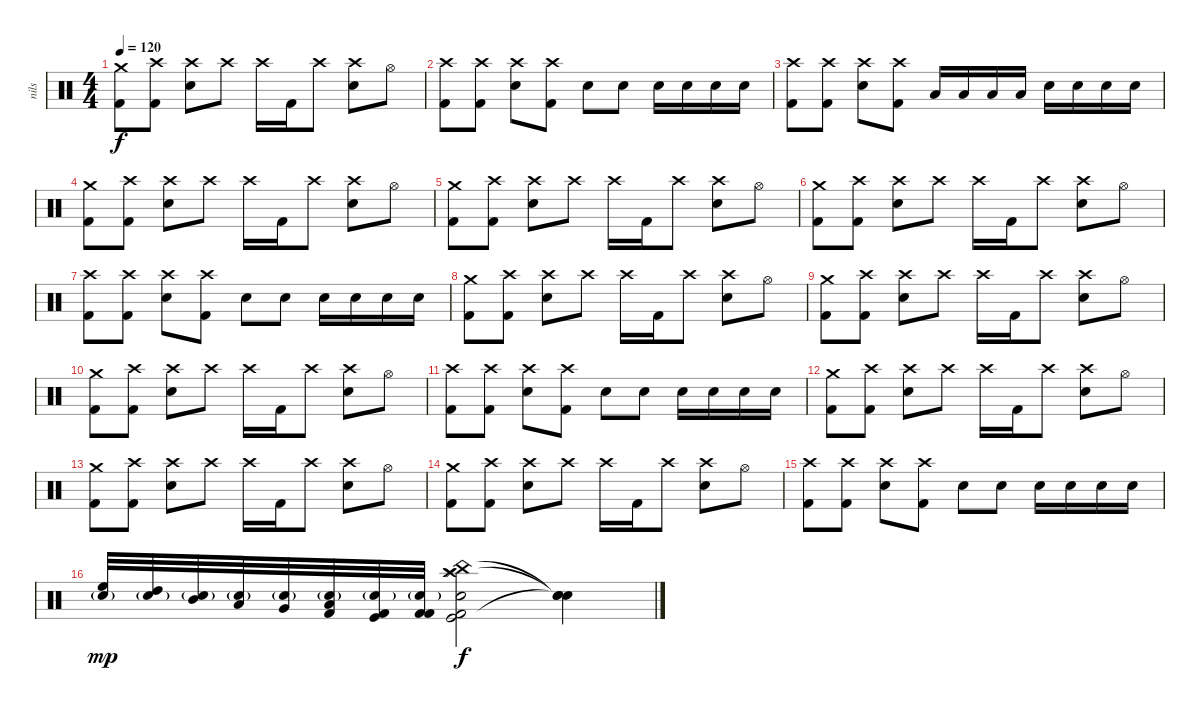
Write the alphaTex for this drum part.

\track ("nils" "nils") {instrument percussion}
\staff {score}
\articulation defaults
\ts (4 4)
\tempo 120
\clef neutral
\ks c
("Crash medium (hit)" "Kick (hit) 2").8{dy f} ("Crash high (hit)" "Kick (hit) 2").8 ("Crash high (hit)" "Snare (hit) 2").8 "Crash high (hit)".8 "Crash high (hit)".16 "Kick (hit) 2".16 "Crash high (hit)".8 ("Crash high (hit)" "Snare (hit) 2").8 "Hi-Hat (open)".8 |
("Crash high (hit)" "Kick (hit) 2").8 ("Crash high (hit)" "Kick (hit) 2").8 ("Crash high (hit)" "Snare (hit) 2").8 ("Crash high (hit)" "Kick (hit) 2").8 "Snare (hit) 2".8 "Snare (hit) 2".8 "Snare (hit) 2".16 "Snare (hit) 2".16 "Snare (hit) 2".16 "Snare (hit) 2".16 |
("Crash high (hit)" "Kick (hit) 2").8 ("Crash high (hit)" "Kick (hit) 2").8 ("Crash high (hit)" "Snare (hit) 2").8 ("Crash high (hit)" "Kick (hit) 2").8 "Low Floor Tom (hit)".16 "Low Floor Tom (hit)".16 "Low Floor Tom (hit)".16 "Low Floor Tom (hit)".16 "Snare (hit) 2".16 "Snare (hit) 2".16 "Snare (hit) 2".16 "Snare (hit) 2".16 |
("Crash medium (hit)" "Kick (hit) 2").8{volume 14 balance 8} ("Crash high (hit)" "Kick (hit) 2").8 ("Crash high (hit)" "Snare (hit) 2").8 "Crash high (hit)".8 "Crash high (hit)".16 "Kick (hit) 2".16 "Crash high (hit)".8 ("Crash high (hit)" "Snare (hit) 2").8 "Hi-Hat (open)".8 |
("Crash medium (hit)" "Kick (hit) 2").8 ("Crash high (hit)" "Kick (hit) 2").8 ("Crash high (hit)" "Snare (hit) 2").8 "Crash high (hit)".8 "Crash high (hit)".16 "Kick (hit) 2".16 "Crash high (hit)".8 ("Crash high (hit)" "Snare (hit) 2").8 "Hi-Hat (open)".8 |
("Crash medium (hit)" "Kick (hit) 2").8 ("Crash high (hit)" "Kick (hit) 2").8 ("Crash high (hit)" "Snare (hit) 2").8 "Crash high (hit)".8 "Crash high (hit)".16 "Kick (hit) 2".16 "Crash high (hit)".8 ("Crash high (hit)" "Snare (hit) 2").8 "Hi-Hat (open)".8 |
("Crash high (hit)" "Kick (hit) 2").8 ("Crash high (hit)" "Kick (hit) 2").8 ("Crash high (hit)" "Snare (hit) 2").8 ("Crash high (hit)" "Kick (hit) 2").8 "Snare (hit) 2".8 "Snare (hit) 2".8 "Snare (hit) 2".16 "Snare (hit) 2".16 "Snare (hit) 2".16 "Snare (hit) 2".16 |
("Crash medium (hit)" "Kick (hit) 2").8{volume 14 balance 8} ("Crash high (hit)" "Kick (hit) 2").8 ("Crash high (hit)" "Snare (hit) 2").8 "Crash high (hit)".8 "Crash high (hit)".16 "Kick (hit) 2".16 "Crash high (hit)".8 ("Crash high (hit)" "Snare (hit) 2").8 "Hi-Hat (open)".8 |
("Crash medium (hit)" "Kick (hit) 2").8 ("Crash high (hit)" "Kick (hit) 2").8 ("Crash high (hit)" "Snare (hit) 2").8 "Crash high (hit)".8 "Crash high (hit)".16 "Kick (hit) 2".16 "Crash high (hit)".8 ("Crash high (hit)" "Snare (hit) 2").8 "Hi-Hat (open)".8 |
("Crash medium (hit)" "Kick (hit) 2").8 ("Crash high (hit)" "Kick (hit) 2").8 ("Crash high (hit)" "Snare (hit) 2").8 "Crash high (hit)".8 "Crash high (hit)".16 "Kick (hit) 2".16 "Crash high (hit)".8 ("Crash high (hit)" "Snare (hit) 2").8 "Hi-Hat (open)".8 |
("Crash high (hit)" "Kick (hit) 2").8 ("Crash high (hit)" "Kick (hit) 2").8 ("Crash high (hit)" "Snare (hit) 2").8 ("Crash high (hit)" "Kick (hit) 2").8 "Snare (hit) 2".8 "Snare (hit) 2".8 "Snare (hit) 2".16 "Snare (hit) 2".16 "Snare (hit) 2".16 "Snare (hit) 2".16 |
("Crash medium (hit)" "Kick (hit) 2").8{volume 14 balance 8} ("Crash high (hit)" "Kick (hit) 2").8 ("Crash high (hit)" "Snare (hit) 2").8 "Crash high (hit)".8 "Crash high (hit)".16 "Kick (hit) 2".16 "Crash high (hit)".8 ("Crash high (hit)" "Snare (hit) 2").8 "Hi-Hat (open)".8 |
("Crash medium (hit)" "Kick (hit) 2").8 ("Crash high (hit)" "Kick (hit) 2").8 ("Crash high (hit)" "Snare (hit) 2").8 "Crash high (hit)".8 "Crash high (hit)".16 "Kick (hit) 2".16 "Crash high (hit)".8 ("Crash high (hit)" "Snare (hit) 2").8 "Hi-Hat (open)".8 |
("Crash medium (hit)" "Kick (hit) 2").8 ("Crash high (hit)" "Kick (hit) 2").8 ("Crash high (hit)" "Snare (hit) 2").8 "Crash high (hit)".8 "Crash high (hit)".16 "Kick (hit) 2".16 "Crash high (hit)".8 ("Crash high (hit)" "Snare (hit) 2").8 "Hi-Hat (open)".8 |
("Crash high (hit)" "Kick (hit) 2").8 ("Crash high (hit)" "Kick (hit) 2").8 ("Crash high (hit)" "Snare (hit) 2").8 ("Crash high (hit)" "Kick (hit) 2").8 "Snare (hit) 2".8 "Snare (hit) 2".8 "Snare (hit) 2".16 "Snare (hit) 2".16 "Snare (hit) 2".16 "Snare (hit) 2".16 |
("Electric Snare (hit)"{g} "High Floor Tom (hit)").32{dy mp} ("Electric Snare (hit)"{g} "High Tom (hit)").32 ("Electric Snare (hit)"{g} "Mid Tom (hit)").32 ("Electric Snare (hit)"{g} "Low Tom (hit)").32 ("Electric Snare (hit)"{g} "Very Low Tom (hit)").32 ("Electric Snare (hit)"{g} "Low Floor Tom (hit)" "Kick (hit) 2").32 ("Electric Snare (hit)"{g} "Kick (hit)" "Kick (hit) 2").32 ("Electric Snare (hit)"{g} "Kick (hit) 2" "Kick (hit) 2").32 ("Splash (hit)" "Kick (hit)" "China (hit)" "Crash high (hit)" "Snare (hit) 2" "Kick (hit) 2").2{dy f} ("Snare (hit)"{t} "Snare (hit)"{t} "Snare (hit)"{t}).4
